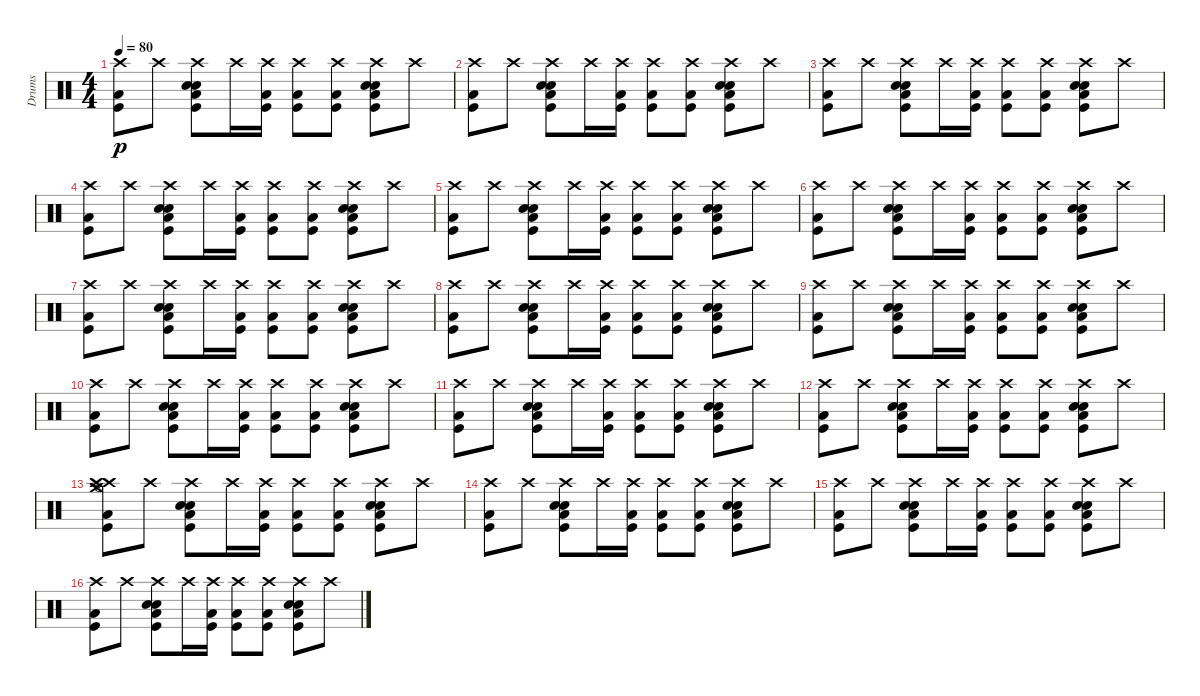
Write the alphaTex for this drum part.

\track ("Drums" "Drums") {instrument percussion}
\staff {score}
\articulation defaults
\ts (4 4)
\tempo 80
\clef neutral
\ks c
("Crash high (hit)" "Low Tom (hit)" "Kick (hit)").8{dy p volume 0} "Crash high (hit)".8{volume 10} ("Crash high (hit)" "Low Tom (hit)" "Electric Snare (hit)" "Snare (hit) 2" "Kick (hit)").8 "Crash high (hit)".16 ("Crash high (hit)" "Low Tom (hit)" "Kick (hit)").16 ("Crash high (hit)" "Low Tom (hit)" "Kick (hit)").8 ("Crash high (hit)" "Low Tom (hit)" "Kick (hit)").8 ("Crash high (hit)" "Low Tom (hit)" "Electric Snare (hit)" "Snare (hit) 2" "Kick (hit)").8 "Crash high (hit)".8 |
("Crash high (hit)" "Low Tom (hit)" "Kick (hit)").8 "Crash high (hit)".8 ("Crash high (hit)" "Low Tom (hit)" "Electric Snare (hit)" "Snare (hit) 2" "Kick (hit)").8 "Crash high (hit)".16 ("Crash high (hit)" "Low Tom (hit)" "Kick (hit)").16 ("Crash high (hit)" "Low Tom (hit)" "Kick (hit)").8 ("Crash high (hit)" "Low Tom (hit)" "Kick (hit)").8 ("Crash high (hit)" "Low Tom (hit)" "Electric Snare (hit)" "Snare (hit) 2" "Kick (hit)").8 "Crash high (hit)".8 |
("Crash high (hit)" "Low Tom (hit)" "Kick (hit)").8 "Crash high (hit)".8 ("Crash high (hit)" "Low Tom (hit)" "Electric Snare (hit)" "Snare (hit) 2" "Kick (hit)").8 "Crash high (hit)".16 ("Crash high (hit)" "Low Tom (hit)" "Kick (hit)").16 ("Crash high (hit)" "Low Tom (hit)" "Kick (hit)").8 ("Crash high (hit)" "Low Tom (hit)" "Kick (hit)").8 ("Crash high (hit)" "Low Tom (hit)" "Electric Snare (hit)" "Snare (hit) 2" "Kick (hit)").8 "Crash high (hit)".8 |
("Crash high (hit)" "Low Tom (hit)" "Kick (hit)").8 "Crash high (hit)".8 ("Crash high (hit)" "Low Tom (hit)" "Electric Snare (hit)" "Snare (hit) 2" "Kick (hit)").8 "Crash high (hit)".16 ("Crash high (hit)" "Low Tom (hit)" "Kick (hit)").16 ("Crash high (hit)" "Low Tom (hit)" "Kick (hit)").8 ("Crash high (hit)" "Low Tom (hit)" "Kick (hit)").8 ("Crash high (hit)" "Low Tom (hit)" "Electric Snare (hit)" "Snare (hit) 2" "Kick (hit)").8 "Crash high (hit)".8 |
("Crash high (hit)" "Low Tom (hit)" "Kick (hit)").8{volume 12} "Crash high (hit)".8 ("Crash high (hit)" "Low Tom (hit)" "Electric Snare (hit)" "Snare (hit) 2" "Kick (hit)").8 "Crash high (hit)".16 ("Crash high (hit)" "Low Tom (hit)" "Kick (hit)").16 ("Crash high (hit)" "Low Tom (hit)" "Kick (hit)").8 ("Crash high (hit)" "Low Tom (hit)" "Kick (hit)").8 ("Crash high (hit)" "Low Tom (hit)" "Electric Snare (hit)" "Snare (hit) 2" "Kick (hit)").8 "Crash high (hit)".8 |
("Crash high (hit)" "Low Tom (hit)" "Kick (hit)").8 "Crash high (hit)".8 ("Crash high (hit)" "Low Tom (hit)" "Electric Snare (hit)" "Snare (hit) 2" "Kick (hit)").8 "Crash high (hit)".16 ("Crash high (hit)" "Low Tom (hit)" "Kick (hit)").16 ("Crash high (hit)" "Low Tom (hit)" "Kick (hit)").8 ("Crash high (hit)" "Low Tom (hit)" "Kick (hit)").8 ("Crash high (hit)" "Low Tom (hit)" "Electric Snare (hit)" "Snare (hit) 2" "Kick (hit)").8 "Crash high (hit)".8 |
("Crash high (hit)" "Low Tom (hit)" "Kick (hit)").8 "Crash high (hit)".8 ("Crash high (hit)" "Low Tom (hit)" "Electric Snare (hit)" "Snare (hit) 2" "Kick (hit)").8 "Crash high (hit)".16 ("Crash high (hit)" "Low Tom (hit)" "Kick (hit)").16 ("Crash high (hit)" "Low Tom (hit)" "Kick (hit)").8 ("Crash high (hit)" "Low Tom (hit)" "Kick (hit)").8 ("Crash high (hit)" "Low Tom (hit)" "Electric Snare (hit)" "Snare (hit) 2" "Kick (hit)").8 "Crash high (hit)".8 |
("Crash high (hit)" "Low Tom (hit)" "Kick (hit)").8 "Crash high (hit)".8 ("Crash high (hit)" "Low Tom (hit)" "Electric Snare (hit)" "Snare (hit) 2" "Kick (hit)").8 "Crash high (hit)".16 ("Crash high (hit)" "Low Tom (hit)" "Kick (hit)").16 ("Crash high (hit)" "Low Tom (hit)" "Kick (hit)").8 ("Crash high (hit)" "Low Tom (hit)" "Kick (hit)").8 ("Crash high (hit)" "Low Tom (hit)" "Electric Snare (hit)" "Snare (hit) 2" "Kick (hit)").8 "Crash high (hit)".8 |
("Crash high (hit)" "Low Tom (hit)" "Kick (hit)").8 "Crash high (hit)".8 ("Crash high (hit)" "Low Tom (hit)" "Electric Snare (hit)" "Snare (hit) 2" "Kick (hit)").8 "Crash high (hit)".16 ("Crash high (hit)" "Low Tom (hit)" "Kick (hit)").16 ("Crash high (hit)" "Low Tom (hit)" "Kick (hit)").8 ("Crash high (hit)" "Low Tom (hit)" "Kick (hit)").8 ("Crash high (hit)" "Low Tom (hit)" "Electric Snare (hit)" "Snare (hit) 2" "Kick (hit)").8 "Crash high (hit)".8 |
("Crash high (hit)" "Low Tom (hit)" "Kick (hit)").8 "Crash high (hit)".8 ("Crash high (hit)" "Low Tom (hit)" "Electric Snare (hit)" "Snare (hit) 2" "Kick (hit)").8 "Crash high (hit)".16 ("Crash high (hit)" "Low Tom (hit)" "Kick (hit)").16 ("Crash high (hit)" "Low Tom (hit)" "Kick (hit)").8 ("Crash high (hit)" "Low Tom (hit)" "Kick (hit)").8 ("Crash high (hit)" "Low Tom (hit)" "Electric Snare (hit)" "Snare (hit) 2" "Kick (hit)").8 "Crash high (hit)".8 |
("Crash high (hit)" "Low Tom (hit)" "Kick (hit)").8 "Crash high (hit)".8 ("Crash high (hit)" "Low Tom (hit)" "Electric Snare (hit)" "Snare (hit) 2" "Kick (hit)").8 "Crash high (hit)".16 ("Crash high (hit)" "Low Tom (hit)" "Kick (hit)").16 ("Crash high (hit)" "Low Tom (hit)" "Kick (hit)").8 ("Crash high (hit)" "Low Tom (hit)" "Kick (hit)").8 ("Crash high (hit)" "Low Tom (hit)" "Electric Snare (hit)" "Snare (hit) 2" "Kick (hit)").8 "Crash high (hit)".8 |
("Crash high (hit)" "Low Tom (hit)" "Kick (hit)").8 "Crash high (hit)".8 ("Crash high (hit)" "Low Tom (hit)" "Electric Snare (hit)" "Snare (hit) 2" "Kick (hit)").8 "Crash high (hit)".16 ("Crash high (hit)" "Low Tom (hit)" "Kick (hit)").16 ("Crash high (hit)" "Low Tom (hit)" "Kick (hit)").8 ("Crash high (hit)" "Low Tom (hit)" "Kick (hit)").8 ("Crash high (hit)" "Low Tom (hit)" "Electric Snare (hit)" "Snare (hit) 2" "Kick (hit)").8 "Crash high (hit)".8 |
("Crash high (hit)" "Low Tom (hit)" "Kick (hit)" "Crash high (hit)" "Crash medium (hit)" "Hi-Hat (open)").8 "Crash high (hit)".8 ("Crash high (hit)" "Low Tom (hit)" "Electric Snare (hit)" "Snare (hit) 2" "Kick (hit)").8 "Crash high (hit)".16 ("Crash high (hit)" "Low Tom (hit)" "Kick (hit)").16 ("Crash high (hit)" "Low Tom (hit)" "Kick (hit)").8 ("Crash high (hit)" "Low Tom (hit)" "Kick (hit)").8 ("Crash high (hit)" "Low Tom (hit)" "Electric Snare (hit)" "Snare (hit) 2" "Kick (hit)").8 "Crash high (hit)".8 |
("Crash high (hit)" "Low Tom (hit)" "Kick (hit)").8 "Crash high (hit)".8 ("Crash high (hit)" "Low Tom (hit)" "Electric Snare (hit)" "Snare (hit) 2" "Kick (hit)").8 "Crash high (hit)".16 ("Crash high (hit)" "Low Tom (hit)" "Kick (hit)").16 ("Crash high (hit)" "Low Tom (hit)" "Kick (hit)").8 ("Crash high (hit)" "Low Tom (hit)" "Kick (hit)").8 ("Crash high (hit)" "Low Tom (hit)" "Electric Snare (hit)" "Snare (hit) 2" "Kick (hit)").8 "Crash high (hit)".8 |
("Crash high (hit)" "Low Tom (hit)" "Kick (hit)").8 "Crash high (hit)".8 ("Crash high (hit)" "Low Tom (hit)" "Electric Snare (hit)" "Snare (hit) 2" "Kick (hit)").8 "Crash high (hit)".16 ("Crash high (hit)" "Low Tom (hit)" "Kick (hit)").16 ("Crash high (hit)" "Low Tom (hit)" "Kick (hit)").8 ("Crash high (hit)" "Low Tom (hit)" "Kick (hit)").8 ("Crash high (hit)" "Low Tom (hit)" "Electric Snare (hit)" "Snare (hit) 2" "Kick (hit)").8 "Crash high (hit)".8 |
("Crash high (hit)" "Low Tom (hit)" "Kick (hit)").8 "Crash high (hit)".8 ("Crash high (hit)" "Low Tom (hit)" "Electric Snare (hit)" "Snare (hit) 2" "Kick (hit)").8 "Crash high (hit)".16 ("Crash high (hit)" "Low Tom (hit)" "Kick (hit)").16 ("Crash high (hit)" "Low Tom (hit)" "Kick (hit)").8 ("Crash high (hit)" "Low Tom (hit)" "Kick (hit)").8 ("Crash high (hit)" "Low Tom (hit)" "Electric Snare (hit)" "Snare (hit) 2" "Kick (hit)").8 "Crash high (hit)".8
